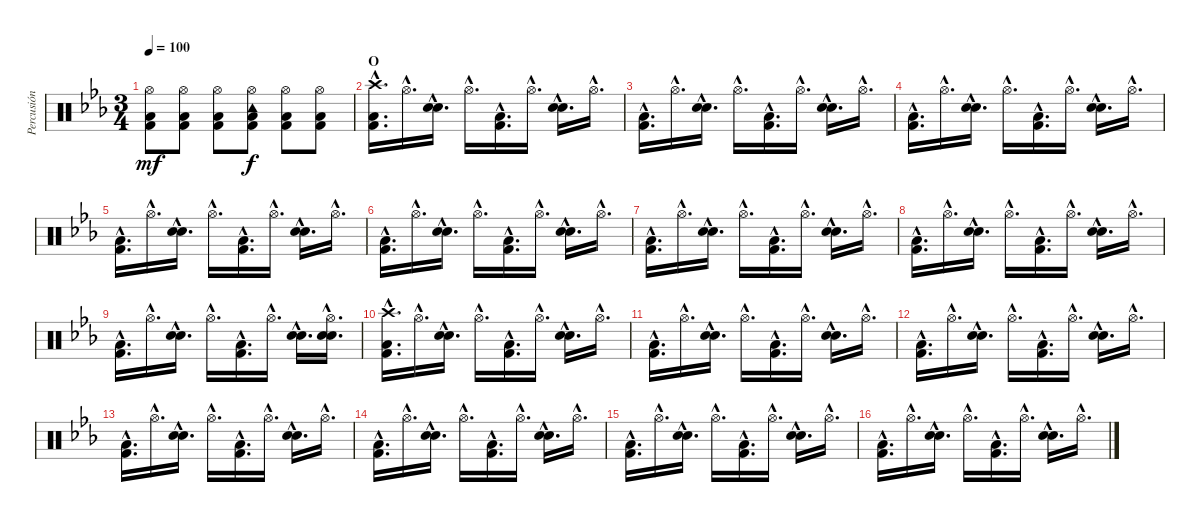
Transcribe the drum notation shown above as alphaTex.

\track ("Percusión" "Percusión") {instrument percussion}
\staff {score}
\articulation defaults
\ts (3 4)
\tempo 100
\clef neutral
\ks eb
("Hi-Hat (open)" "Low Floor Tom (hit)" "Kick (hit) 2").8{dy mf} ("Hi-Hat (open)" "Low Floor Tom (hit)" "Kick (hit) 2").8 ("Hi-Hat (open)" "Low Floor Tom (hit)" "Kick (hit) 2").8 ("Hi-Hat (open)" "Low Floor Tom (hit)" "Kick (hit) 2" "Tambourine (hit)").8{dy f} ("Hi-Hat (open)" "Low Floor Tom (hit)" "Kick (hit) 2").8 ("Hi-Hat (open)" "Low Floor Tom (hit)" "Kick (hit) 2").8 |
\section ("" "O")
("Low Floor Tom (hit)"{hac} "Kick (hit) 2"{hac} "Crash high (hit)"{hac}).16{d} "Hi-Hat (open)"{hac pm}.16{d} ("Electric Snare (hit)"{hac} "Snare (hit) 2"{hac}).16{d} "Hi-Hat (open)"{hac pm}.16{d} ("Low Floor Tom (hit)"{hac} "Kick (hit) 2"{hac}).16{d} "Hi-Hat (open)"{hac pm}.16{d} ("Electric Snare (hit)"{hac} "Snare (hit) 2"{hac}).16{d} "Hi-Hat (open)"{hac pm}.16{d} |
("Low Floor Tom (hit)"{hac} "Kick (hit) 2"{hac}).16{d} "Hi-Hat (open)"{hac pm}.16{d} ("Electric Snare (hit)"{hac} "Snare (hit) 2"{hac}).16{d} "Hi-Hat (open)"{hac pm}.16{d} ("Low Floor Tom (hit)"{hac} "Kick (hit) 2"{hac}).16{d} "Hi-Hat (open)"{hac pm}.16{d} ("Electric Snare (hit)"{hac} "Snare (hit) 2"{hac}).16{d} "Hi-Hat (open)"{hac pm}.16{d} |
("Low Floor Tom (hit)"{hac} "Kick (hit) 2"{hac}).16{d} "Hi-Hat (open)"{hac pm}.16{d} ("Electric Snare (hit)"{hac} "Snare (hit) 2"{hac}).16{d} "Hi-Hat (open)"{hac pm}.16{d} ("Low Floor Tom (hit)"{hac} "Kick (hit) 2"{hac}).16{d} "Hi-Hat (open)"{hac pm}.16{d} ("Electric Snare (hit)"{hac} "Snare (hit) 2"{hac}).16{d} "Hi-Hat (open)"{hac pm}.16{d} |
("Low Floor Tom (hit)"{hac} "Kick (hit) 2"{hac}).16{d} "Hi-Hat (open)"{hac pm}.16{d} ("Electric Snare (hit)"{hac} "Snare (hit) 2"{hac}).16{d} "Hi-Hat (open)"{hac pm}.16{d} ("Low Floor Tom (hit)"{hac} "Kick (hit) 2"{hac}).16{d} "Hi-Hat (open)"{hac pm}.16{d} ("Electric Snare (hit)"{hac} "Snare (hit) 2"{hac}).16{d} "Hi-Hat (open)"{hac pm}.16{d} |
("Low Floor Tom (hit)"{hac} "Kick (hit) 2"{hac}).16{d} "Hi-Hat (open)"{hac pm}.16{d} ("Electric Snare (hit)"{hac} "Snare (hit) 2"{hac}).16{d} "Hi-Hat (open)"{hac pm}.16{d} ("Low Floor Tom (hit)"{hac} "Kick (hit) 2"{hac}).16{d} "Hi-Hat (open)"{hac pm}.16{d} ("Electric Snare (hit)"{hac} "Snare (hit) 2"{hac}).16{d} "Hi-Hat (open)"{hac pm}.16{d} |
("Low Floor Tom (hit)"{hac} "Kick (hit) 2"{hac}).16{d} "Hi-Hat (open)"{hac pm}.16{d} ("Electric Snare (hit)"{hac} "Snare (hit) 2"{hac}).16{d} "Hi-Hat (open)"{hac pm}.16{d} ("Low Floor Tom (hit)"{hac} "Kick (hit) 2"{hac}).16{d} "Hi-Hat (open)"{hac pm}.16{d} ("Electric Snare (hit)"{hac} "Snare (hit) 2"{hac}).16{d} "Hi-Hat (open)"{hac pm}.16{d} |
("Low Floor Tom (hit)"{hac} "Kick (hit) 2"{hac}).16{d} "Hi-Hat (open)"{hac pm}.16{d} ("Electric Snare (hit)"{hac} "Snare (hit) 2"{hac}).16{d} "Hi-Hat (open)"{hac pm}.16{d} ("Low Floor Tom (hit)"{hac} "Kick (hit) 2"{hac}).16{d} "Hi-Hat (open)"{hac pm}.16{d} ("Electric Snare (hit)"{hac} "Snare (hit) 2"{hac}).16{d} "Hi-Hat (open)"{hac pm}.16{d} |
("Low Floor Tom (hit)"{hac} "Kick (hit) 2"{hac}).16{d} "Hi-Hat (open)"{hac pm}.16{d} ("Electric Snare (hit)"{hac} "Snare (hit) 2"{hac}).16{d} "Hi-Hat (open)"{hac pm}.16{d} ("Low Floor Tom (hit)"{hac} "Kick (hit) 2"{hac}).16{d} "Hi-Hat (open)"{hac pm}.16{d} ("Electric Snare (hit)"{hac} "Snare (hit) 2"{hac}).16{d} ("Hi-Hat (open)"{hac pm} "Electric Snare (hit)"{hac} "Snare (hit) 2"{hac}).16{d} |
("Low Floor Tom (hit)"{hac} "Kick (hit) 2"{hac} "Crash high (hit)"{hac}).16{d} "Hi-Hat (open)"{hac pm}.16{d} ("Electric Snare (hit)"{hac} "Snare (hit) 2"{hac}).16{d} "Hi-Hat (open)"{hac pm}.16{d} ("Low Floor Tom (hit)"{hac} "Kick (hit) 2"{hac}).16{d} "Hi-Hat (open)"{hac pm}.16{d} ("Electric Snare (hit)"{hac} "Snare (hit) 2"{hac}).16{d} "Hi-Hat (open)"{hac pm}.16{d} |
("Low Floor Tom (hit)"{hac} "Kick (hit) 2"{hac}).16{d} "Hi-Hat (open)"{hac pm}.16{d} ("Electric Snare (hit)"{hac} "Snare (hit) 2"{hac}).16{d} "Hi-Hat (open)"{hac pm}.16{d} ("Low Floor Tom (hit)"{hac} "Kick (hit) 2"{hac}).16{d} "Hi-Hat (open)"{hac pm}.16{d} ("Electric Snare (hit)"{hac} "Snare (hit) 2"{hac}).16{d} "Hi-Hat (open)"{hac pm}.16{d} |
("Low Floor Tom (hit)"{hac} "Kick (hit) 2"{hac}).16{d} "Hi-Hat (open)"{hac pm}.16{d} ("Electric Snare (hit)"{hac} "Snare (hit) 2"{hac}).16{d} "Hi-Hat (open)"{hac pm}.16{d} ("Low Floor Tom (hit)"{hac} "Kick (hit) 2"{hac}).16{d} "Hi-Hat (open)"{hac pm}.16{d} ("Electric Snare (hit)"{hac} "Snare (hit) 2"{hac}).16{d} "Hi-Hat (open)"{hac pm}.16{d} |
("Low Floor Tom (hit)"{hac} "Kick (hit) 2"{hac}).16{d} "Hi-Hat (open)"{hac pm}.16{d} ("Electric Snare (hit)"{hac} "Snare (hit) 2"{hac}).16{d} "Hi-Hat (open)"{hac pm}.16{d} ("Low Floor Tom (hit)"{hac} "Kick (hit) 2"{hac}).16{d} "Hi-Hat (open)"{hac pm}.16{d} ("Electric Snare (hit)"{hac} "Snare (hit) 2"{hac}).16{d} "Hi-Hat (open)"{hac pm}.16{d} |
("Low Floor Tom (hit)"{hac} "Kick (hit) 2"{hac}).16{d} "Hi-Hat (open)"{hac pm}.16{d} ("Electric Snare (hit)"{hac} "Snare (hit) 2"{hac}).16{d} "Hi-Hat (open)"{hac pm}.16{d} ("Low Floor Tom (hit)"{hac} "Kick (hit) 2"{hac}).16{d} "Hi-Hat (open)"{hac pm}.16{d} ("Electric Snare (hit)"{hac} "Snare (hit) 2"{hac}).16{d} "Hi-Hat (open)"{hac pm}.16{d} |
("Low Floor Tom (hit)"{hac} "Kick (hit) 2"{hac}).16{d} "Hi-Hat (open)"{hac pm}.16{d} ("Electric Snare (hit)"{hac} "Snare (hit) 2"{hac}).16{d} "Hi-Hat (open)"{hac pm}.16{d} ("Low Floor Tom (hit)"{hac} "Kick (hit) 2"{hac}).16{d} "Hi-Hat (open)"{hac pm}.16{d} ("Electric Snare (hit)"{hac} "Snare (hit) 2"{hac}).16{d} "Hi-Hat (open)"{hac pm}.16{d} |
("Low Floor Tom (hit)"{hac} "Kick (hit) 2"{hac}).16{d} "Hi-Hat (open)"{hac pm}.16{d} ("Electric Snare (hit)"{hac} "Snare (hit) 2"{hac}).16{d} "Hi-Hat (open)"{hac pm}.16{d} ("Low Floor Tom (hit)"{hac} "Kick (hit) 2"{hac}).16{d} "Hi-Hat (open)"{hac pm}.16{d} ("Electric Snare (hit)"{hac} "Snare (hit) 2"{hac}).16{d} "Hi-Hat (open)"{hac pm}.16{d}
